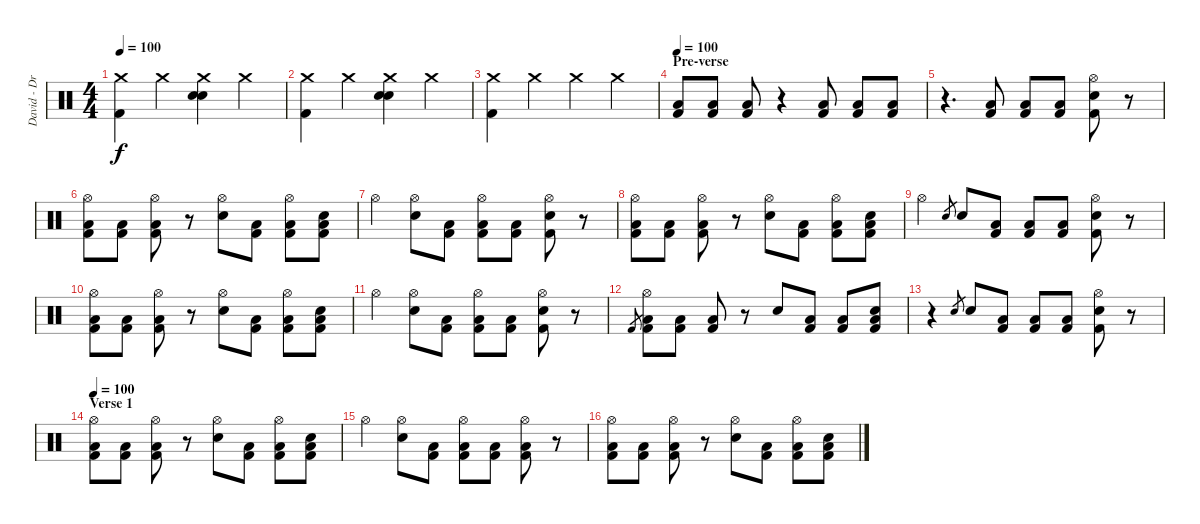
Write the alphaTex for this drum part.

\track ("David - Drums" "David - Dr") {instrument percussion}
\staff {score}
\articulation defaults
\ts (4 4)
\tempo 100
\clef neutral
\ks c
("Crash medium (hit)" "Kick (hit) 2").4{dy f} "Crash medium (hit)".4 ("Crash medium (hit)" "Electric Snare (hit)" "Snare (hit) 2").4 "Crash medium (hit)".4 |
("Crash medium (hit)" "Kick (hit) 2").4 "Crash medium (hit)".4 ("Crash medium (hit)" "Electric Snare (hit)" "Snare (hit) 2").4 "Crash medium (hit)".4 |
("Crash medium (hit)" "Kick (hit) 2").4 "Crash medium (hit)".4 "Crash medium (hit)".4 "Crash medium (hit)".4 |
\section ("" "Pre-verse")
\tempo 100
("Low Floor Tom (hit)" "Kick (hit) 2").8{volume 16 balance 8} ("Low Floor Tom (hit)" "Kick (hit) 2").8 ("Low Floor Tom (hit)" "Kick (hit) 2").8 r.4 ("Low Floor Tom (hit)" "Kick (hit) 2").8 ("Low Floor Tom (hit)" "Kick (hit) 2").8 ("Low Floor Tom (hit)" "Kick (hit) 2").8 |
r.4{d} ("Low Floor Tom (hit)" "Kick (hit) 2").8 ("Low Floor Tom (hit)" "Kick (hit) 2").8 ("Low Floor Tom (hit)" "Kick (hit) 2").8 ("Hi-Hat (open)" "Electric Snare (hit)" "Kick (hit) 2").8 r.8 |
("Hi-Hat (open)" "Low Floor Tom (hit)" "Kick (hit) 2").8 ("Low Floor Tom (hit)" "Kick (hit) 2").8 ("Hi-Hat (open)" "Low Floor Tom (hit)" "Kick (hit) 2").8 r.8 ("Hi-Hat (open)" "Electric Snare (hit)").8 ("Low Floor Tom (hit)" "Kick (hit) 2").8 ("Hi-Hat (open)" "Low Floor Tom (hit)" "Kick (hit) 2").8 ("Electric Snare (hit)" "Low Floor Tom (hit)" "Kick (hit) 2").8 |
"Hi-Hat (open)".4 ("Hi-Hat (open)" "Electric Snare (hit)").8 ("Low Floor Tom (hit)" "Kick (hit) 2").8 ("Hi-Hat (open)" "Low Floor Tom (hit)" "Kick (hit) 2").8 ("Low Floor Tom (hit)" "Kick (hit) 2").8 ("Hi-Hat (open)" "Electric Snare (hit)" "Kick (hit) 2").8 r.8 |
("Hi-Hat (open)" "Low Floor Tom (hit)" "Kick (hit) 2").8 ("Low Floor Tom (hit)" "Kick (hit) 2").8 ("Hi-Hat (open)" "Low Floor Tom (hit)" "Kick (hit) 2").8 r.8 ("Hi-Hat (open)" "Electric Snare (hit)").8 ("Low Floor Tom (hit)" "Kick (hit) 2").8 ("Hi-Hat (open)" "Low Floor Tom (hit)" "Kick (hit) 2").8 ("Electric Snare (hit)" "Low Floor Tom (hit)" "Kick (hit) 2").8 |
"Hi-Hat (open)".4 "Electric Snare (hit)".8{gr} "Electric Snare (hit)".8 ("Low Floor Tom (hit)" "Kick (hit) 2").8 ("Low Floor Tom (hit)" "Kick (hit) 2").8 ("Low Floor Tom (hit)" "Kick (hit) 2").8 ("Hi-Hat (open)" "Electric Snare (hit)" "Kick (hit) 2").8 r.8 |
("Hi-Hat (open)" "Low Floor Tom (hit)" "Kick (hit) 2").8 ("Low Floor Tom (hit)" "Kick (hit) 2").8 ("Hi-Hat (open)" "Low Floor Tom (hit)" "Kick (hit) 2").8 r.8 ("Hi-Hat (open)" "Electric Snare (hit)").8 ("Low Floor Tom (hit)" "Kick (hit) 2").8 ("Hi-Hat (open)" "Low Floor Tom (hit)" "Kick (hit) 2").8 ("Electric Snare (hit)" "Low Floor Tom (hit)" "Kick (hit) 2").8 |
"Hi-Hat (open)".4 ("Hi-Hat (open)" "Electric Snare (hit)").8 ("Low Floor Tom (hit)" "Kick (hit) 2").8 ("Hi-Hat (open)" "Low Floor Tom (hit)" "Kick (hit) 2").8 ("Low Floor Tom (hit)" "Kick (hit) 2").8 ("Hi-Hat (open)" "Electric Snare (hit)" "Kick (hit) 2").8 r.8 |
"Kick (hit) 2".8{gr} ("Hi-Hat (open)" "Low Floor Tom (hit)" "Kick (hit) 2").8 ("Low Floor Tom (hit)" "Kick (hit) 2").8 ("Low Floor Tom (hit)" "Kick (hit) 2").8 r.8 "Electric Snare (hit)".8 ("Low Floor Tom (hit)" "Kick (hit) 2").8 ("Low Floor Tom (hit)" "Kick (hit) 2").8 ("Electric Snare (hit)" "Low Floor Tom (hit)" "Kick (hit) 2").8 |
r.4 "Electric Snare (hit)".8{gr} "Electric Snare (hit)".8 ("Low Floor Tom (hit)" "Kick (hit) 2").8 ("Low Floor Tom (hit)" "Kick (hit) 2").8 ("Low Floor Tom (hit)" "Kick (hit) 2").8 ("Hi-Hat (open)" "Electric Snare (hit)" "Kick (hit) 2").8 r.8 |
\section ("" "Verse 1")
\tempo 100
("Hi-Hat (open)" "Low Floor Tom (hit)" "Kick (hit) 2").8{volume 16 balance 8} ("Low Floor Tom (hit)" "Kick (hit) 2").8 ("Hi-Hat (open)" "Low Floor Tom (hit)" "Kick (hit) 2").8 r.8 ("Hi-Hat (open)" "Electric Snare (hit)").8 ("Low Floor Tom (hit)" "Kick (hit) 2").8 ("Hi-Hat (open)" "Low Floor Tom (hit)" "Kick (hit) 2").8 ("Electric Snare (hit)" "Low Floor Tom (hit)" "Kick (hit) 2").8 |
"Hi-Hat (open)".4 ("Hi-Hat (open)" "Electric Snare (hit)").8 ("Low Floor Tom (hit)" "Kick (hit) 2").8 ("Hi-Hat (open)" "Low Floor Tom (hit)" "Kick (hit) 2").8 ("Low Floor Tom (hit)" "Kick (hit) 2").8 ("Hi-Hat (open)" "Low Floor Tom (hit)" "Kick (hit) 2").8 r.8 |
("Hi-Hat (open)" "Low Floor Tom (hit)" "Kick (hit) 2").8 ("Low Floor Tom (hit)" "Kick (hit) 2").8 ("Hi-Hat (open)" "Low Floor Tom (hit)" "Kick (hit) 2").8 r.8 ("Hi-Hat (open)" "Electric Snare (hit)").8 ("Low Floor Tom (hit)" "Kick (hit) 2").8 ("Hi-Hat (open)" "Low Floor Tom (hit)" "Kick (hit) 2").8 ("Electric Snare (hit)" "Low Floor Tom (hit)" "Kick (hit) 2").8
